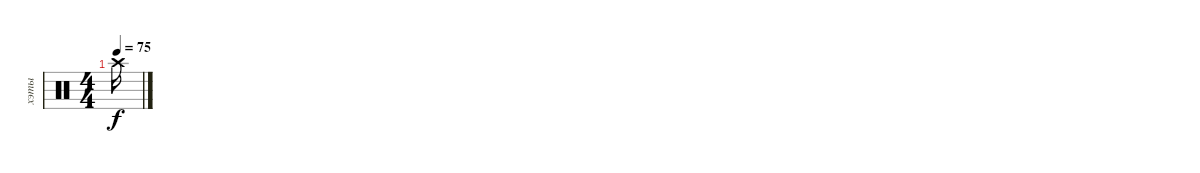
\track ("хэты" "хэты") {instrument percussion}
\staff {score}
\articulation defaults
\ts (4 4)
\tempo 75
\clef neutral
\ks c "Crash high (hit)".16{dy f}
